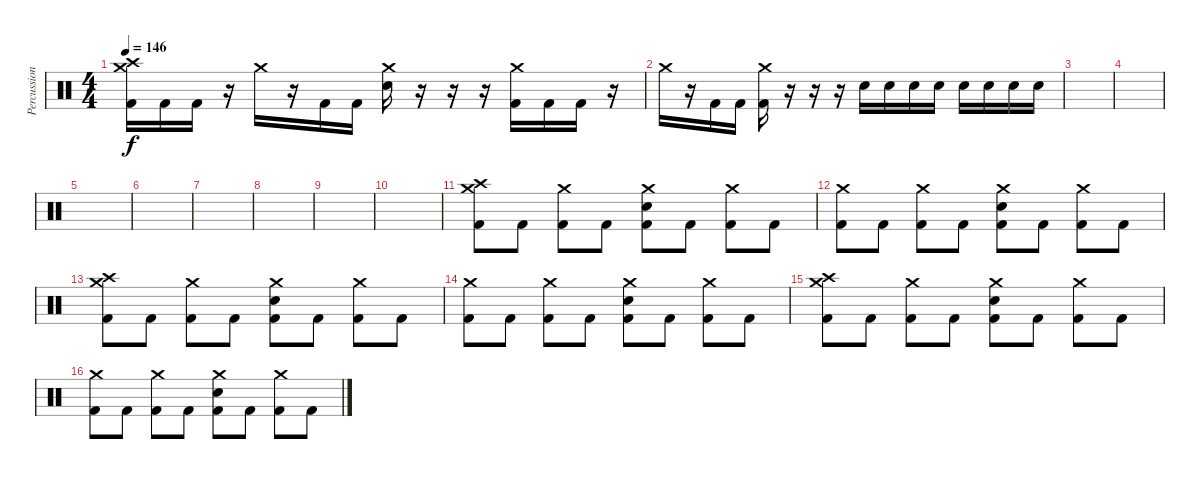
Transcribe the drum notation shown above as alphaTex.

\track ("Percussion" "Percussion") {instrument percussion}
\staff {score}
\articulation defaults
\ts (4 4)
\tempo 146
\clef neutral
\ks c
("Crash high (hit)" "Crash medium (hit)" "Kick (hit) 2").16{dy f} "Kick (hit) 2".16 "Kick (hit) 2".16 r.16 "Crash medium (hit)".16 r.16 "Kick (hit) 2".16 "Kick (hit) 2".16 ("Crash medium (hit)" "Snare (hit) 2").16 r.16 r.16 r.16 ("Crash medium (hit)" "Kick (hit) 2").16 "Kick (hit) 2".16 "Kick (hit) 2".16 r.16 |
"Crash medium (hit)".16 r.16 "Kick (hit) 2".16 "Kick (hit) 2".16 ("Crash medium (hit)" "Kick (hit) 2").16 r.16 r.16 r.16 "Snare (hit) 2".16 "Snare (hit) 2".16 "Snare (hit) 2".16 "Snare (hit) 2".16 "Snare (hit) 2".16 "Snare (hit) 2".16 "Snare (hit) 2".16 "Snare (hit) 2".16 |
|
|
|
|
|
|
|
|
("Crash high (hit)" "Crash medium (hit)" "Kick (hit) 2").8 "Kick (hit) 2".8 ("Crash medium (hit)" "Kick (hit) 2").8 "Kick (hit) 2".8 ("Crash medium (hit)" "Snare (hit) 2" "Kick (hit) 2").8 "Kick (hit) 2".8 ("Crash medium (hit)" "Kick (hit) 2").8 "Kick (hit) 2".8 |
("Crash medium (hit)" "Kick (hit) 2").8 "Kick (hit) 2".8 ("Crash medium (hit)" "Kick (hit) 2").8 "Kick (hit) 2".8 ("Crash medium (hit)" "Snare (hit) 2" "Kick (hit) 2").8 "Kick (hit) 2".8 ("Crash medium (hit)" "Kick (hit) 2").8 "Kick (hit) 2".8 |
("Crash high (hit)" "Crash medium (hit)" "Kick (hit) 2").8 "Kick (hit) 2".8 ("Crash medium (hit)" "Kick (hit) 2").8 "Kick (hit) 2".8 ("Crash medium (hit)" "Snare (hit) 2" "Kick (hit) 2").8 "Kick (hit) 2".8 ("Crash medium (hit)" "Kick (hit) 2").8 "Kick (hit) 2".8 |
("Crash medium (hit)" "Kick (hit) 2").8 "Kick (hit) 2".8 ("Crash medium (hit)" "Kick (hit) 2").8 "Kick (hit) 2".8 ("Crash medium (hit)" "Snare (hit) 2" "Kick (hit) 2").8 "Kick (hit) 2".8 ("Crash medium (hit)" "Kick (hit) 2").8 "Kick (hit) 2".8 |
("Crash high (hit)" "Crash medium (hit)" "Kick (hit) 2").8 "Kick (hit) 2".8 ("Crash medium (hit)" "Kick (hit) 2").8 "Kick (hit) 2".8 ("Crash medium (hit)" "Snare (hit) 2" "Kick (hit) 2").8 "Kick (hit) 2".8 ("Crash medium (hit)" "Kick (hit) 2").8 "Kick (hit) 2".8 |
("Crash medium (hit)" "Kick (hit) 2").8 "Kick (hit) 2".8 ("Crash medium (hit)" "Kick (hit) 2").8 "Kick (hit) 2".8 ("Crash medium (hit)" "Snare (hit) 2" "Kick (hit) 2").8 "Kick (hit) 2".8 ("Crash medium (hit)" "Kick (hit) 2").8 "Kick (hit) 2".8
